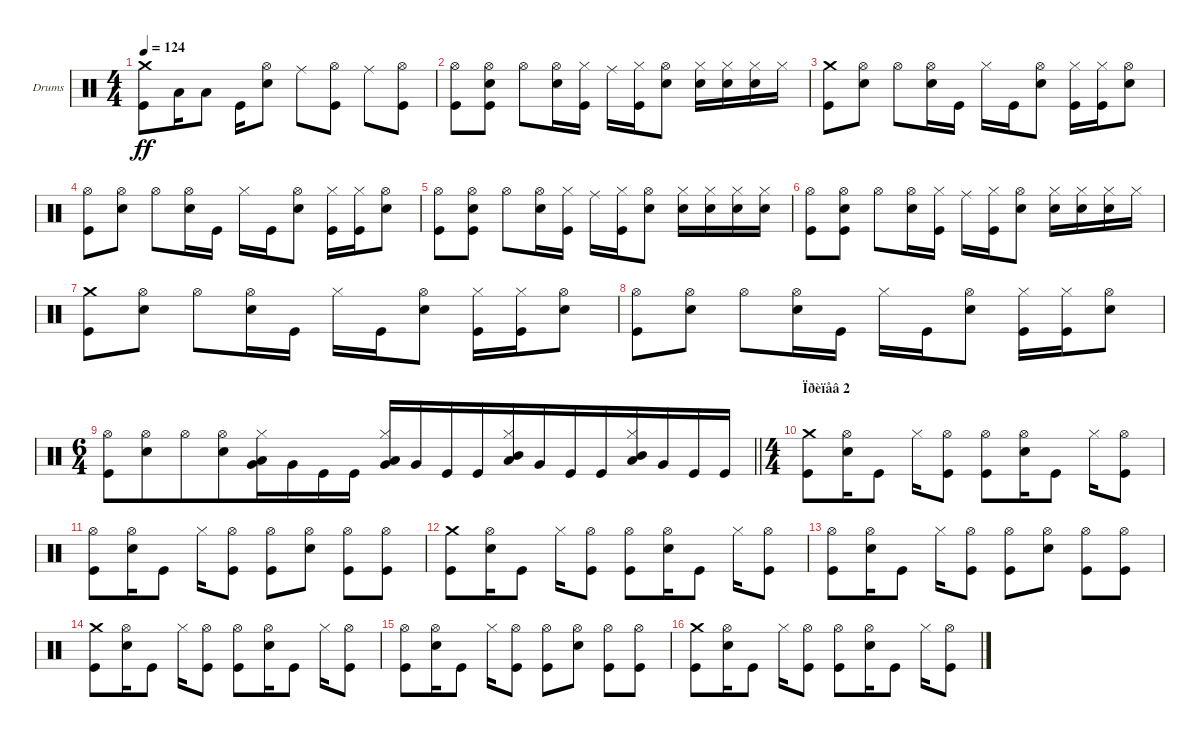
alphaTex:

\bracketExtendMode groupsimilarinstruments
\firstSystemTrackNameOrientation horizontal
\otherSystemsTrackNameOrientation horizontal
\track ("Барабаны" "Drums") {instrument percussion}
\staff {score}
\articulation defaults
\ts (4 4)
\tempo 124
\clef neutral
\ks c
("Crash medium (hit)" "Kick (hit)").8{dy ff} "Low Tom (hit)".16 "Low Tom (hit)".8 "Kick (hit)".16 ("Hi-Hat (open)" "Snare (hit) 2").8 "Ride (middle)".8 ("Kick (hit)" "Hi-Hat (open)").8 "Ride (middle)".8 ("Kick (hit)" "Hi-Hat (open)").8 |
("Hi-Hat (open)" "Kick (hit)").8 ("Hi-Hat (open)" "Snare (hit) 2" "Kick (hit)").8 "Hi-Hat (open)".8 ("Snare (hit) 2" "Hi-Hat (open)").16 ("Hi-Hat (closed)" "Kick (hit)").16 "Ride (middle)".16 ("Hi-Hat (closed)" "Kick (hit)").16 ("Hi-Hat (open)" "Snare (hit) 2").8 ("Hi-Hat (closed)" "Snare (hit) 2").16 ("Hi-Hat (closed)" "Snare (hit) 2").16 ("Hi-Hat (closed)" "Snare (hit) 2").16 "Hi-Hat (closed)".16 |
("Crash medium (hit)" "Kick (hit)").8 ("Hi-Hat (open)" "Snare (hit) 2").8 "Hi-Hat (open)".8 ("Hi-Hat (open)" "Snare (hit) 2").16 "Kick (hit)".16 "Hi-Hat (closed)".16 "Kick (hit)".16 ("Hi-Hat (open)" "Snare (hit) 2").8 ("Hi-Hat (closed)" "Kick (hit)").16 ("Hi-Hat (closed)" "Kick (hit)").16 ("Hi-Hat (open)" "Snare (hit) 2").8 |
("Hi-Hat (open)" "Kick (hit)").8 ("Hi-Hat (open)" "Snare (hit) 2").8 "Hi-Hat (open)".8 ("Hi-Hat (open)" "Snare (hit) 2").16 "Kick (hit)".16 "Hi-Hat (closed)".16 "Kick (hit)".16 ("Hi-Hat (open)" "Snare (hit) 2").8 ("Hi-Hat (closed)" "Kick (hit)").16 ("Hi-Hat (closed)" "Kick (hit)").16 ("Hi-Hat (open)" "Snare (hit) 2").8 |
("Hi-Hat (open)" "Kick (hit)").8 ("Hi-Hat (open)" "Snare (hit) 2" "Kick (hit)").8 "Hi-Hat (open)".8 ("Snare (hit) 2" "Hi-Hat (open)").16 ("Hi-Hat (closed)" "Kick (hit)").16 "Ride (middle)".16 ("Hi-Hat (closed)" "Kick (hit)").16 ("Hi-Hat (open)" "Snare (hit) 2").8 ("Hi-Hat (closed)" "Snare (hit) 2").16 ("Hi-Hat (closed)" "Snare (hit) 2").16 ("Hi-Hat (closed)" "Snare (hit) 2").16 ("Hi-Hat (closed)" "Snare (hit) 2").16 |
("Hi-Hat (open)" "Kick (hit)").8 ("Hi-Hat (open)" "Snare (hit) 2" "Kick (hit)").8 "Hi-Hat (open)".8 ("Snare (hit) 2" "Hi-Hat (open)").16 ("Hi-Hat (closed)" "Kick (hit)").16 "Ride (middle)".16 ("Hi-Hat (closed)" "Kick (hit)").16 ("Hi-Hat (open)" "Snare (hit) 2").8 ("Hi-Hat (closed)" "Snare (hit) 2").16 ("Hi-Hat (closed)" "Snare (hit) 2").16 ("Hi-Hat (closed)" "Snare (hit) 2").16 "Hi-Hat (closed)".16 |
("Crash medium (hit)" "Kick (hit)").8 ("Hi-Hat (open)" "Snare (hit) 2").8 "Hi-Hat (open)".8 ("Hi-Hat (open)" "Snare (hit) 2").16 "Kick (hit)".16 "Hi-Hat (closed)".16 "Kick (hit)".16 ("Hi-Hat (open)" "Snare (hit) 2").8 ("Hi-Hat (closed)" "Kick (hit)").16 ("Hi-Hat (closed)" "Kick (hit)").16 ("Hi-Hat (open)" "Snare (hit) 2").8 |
("Hi-Hat (open)" "Kick (hit)").8 ("Hi-Hat (open)" "Snare (hit) 2").8 "Hi-Hat (open)".8 ("Hi-Hat (open)" "Snare (hit) 2").16 "Kick (hit)".16 "Hi-Hat (closed)".16 "Kick (hit)".16 ("Hi-Hat (open)" "Snare (hit) 2").8 ("Hi-Hat (closed)" "Kick (hit)").16 ("Hi-Hat (closed)" "Kick (hit)").16 ("Hi-Hat (open)" "Snare (hit) 2").8 |
\ts (6 4)
\beaming (8 6 6)
\barLineRight lightlight
("Hi-Hat (open)" "Kick (hit)").8 ("Hi-Hat (open)" "Snare (hit) 2").8 "Hi-Hat (open)".8 ("Hi-Hat (open)" "Snare (hit) 2").8 ("Hi-Hat (closed)" "Very Low Tom (hit)" "Low Tom (hit)").16 "Very Low Tom (hit)".16 "Kick (hit)".16 "Kick (hit)".16 ("Hi-Hat (closed)" "Very Low Tom (hit)" "Low Tom (hit)").16 "Very Low Tom (hit)".16 "Kick (hit)".16 "Kick (hit)".16 ("Hi-Hat (closed)" "Mid Tom (hit)" "Low Tom (hit)").16 "Very Low Tom (hit)".16 "Kick (hit)".16 "Kick (hit)".16 ("Hi-Hat (closed)" "Low Tom (hit)" "Mid Tom (hit)").16 "Very Low Tom (hit)".16 "Kick (hit)".16 "Kick (hit)".16 |
\ts (4 4)
\beaming (8 2 2 2 2)
\section ("" "Ïðèïåâ 2")
("Crash medium (hit)" "Kick (hit)").8 ("Hi-Hat (open)" "Snare (hit) 2").16 "Kick (hit)".8 "Hi-Hat (closed)".16 ("Hi-Hat (open)" "Kick (hit)").8 ("Hi-Hat (open)" "Kick (hit)").8 ("Hi-Hat (open)" "Snare (hit) 2").16 "Kick (hit)".8 "Hi-Hat (closed)".16 ("Kick (hit)" "Hi-Hat (open)").8 |
("Hi-Hat (open)" "Kick (hit)").8 ("Hi-Hat (open)" "Snare (hit) 2").16 "Kick (hit)".8 "Hi-Hat (closed)".16 ("Hi-Hat (open)" "Kick (hit)").8 ("Kick (hit)" "Hi-Hat (open)").8 ("Hi-Hat (open)" "Snare (hit) 2").8 ("Hi-Hat (open)" "Kick (hit)").8 ("Hi-Hat (open)" "Kick (hit)").8 |
("Crash medium (hit)" "Kick (hit)").8 ("Hi-Hat (open)" "Snare (hit) 2").16 "Kick (hit)".8 "Hi-Hat (closed)".16 ("Hi-Hat (open)" "Kick (hit)").8 ("Hi-Hat (open)" "Kick (hit)").8 ("Hi-Hat (open)" "Snare (hit) 2").16 "Kick (hit)".8 "Hi-Hat (closed)".16 ("Kick (hit)" "Hi-Hat (open)").8 |
("Hi-Hat (open)" "Kick (hit)").8 ("Hi-Hat (open)" "Snare (hit) 2").16 "Kick (hit)".8 "Hi-Hat (closed)".16 ("Hi-Hat (open)" "Kick (hit)").8 ("Kick (hit)" "Hi-Hat (open)").8 ("Hi-Hat (open)" "Snare (hit) 2").8 ("Hi-Hat (open)" "Kick (hit)").8 ("Hi-Hat (open)" "Kick (hit)").8 |
("Crash medium (hit)" "Kick (hit)").8 ("Hi-Hat (open)" "Snare (hit) 2").16 "Kick (hit)".8 "Hi-Hat (closed)".16 ("Hi-Hat (open)" "Kick (hit)").8 ("Hi-Hat (open)" "Kick (hit)").8 ("Hi-Hat (open)" "Snare (hit) 2").16 "Kick (hit)".8 "Hi-Hat (closed)".16 ("Kick (hit)" "Hi-Hat (open)").8 |
("Hi-Hat (open)" "Kick (hit)").8 ("Hi-Hat (open)" "Snare (hit) 2").16 "Kick (hit)".8 "Hi-Hat (closed)".16 ("Hi-Hat (open)" "Kick (hit)").8 ("Kick (hit)" "Hi-Hat (open)").8 ("Hi-Hat (open)" "Snare (hit) 2").8 ("Hi-Hat (open)" "Kick (hit)").8 ("Hi-Hat (open)" "Kick (hit)").8 |
("Crash medium (hit)" "Kick (hit)").8 ("Hi-Hat (open)" "Snare (hit) 2").16 "Kick (hit)".8 "Hi-Hat (closed)".16 ("Hi-Hat (open)" "Kick (hit)").8 ("Hi-Hat (open)" "Kick (hit)").8 ("Hi-Hat (open)" "Snare (hit) 2").16 "Kick (hit)".8 "Hi-Hat (closed)".16 ("Kick (hit)" "Hi-Hat (open)").8
